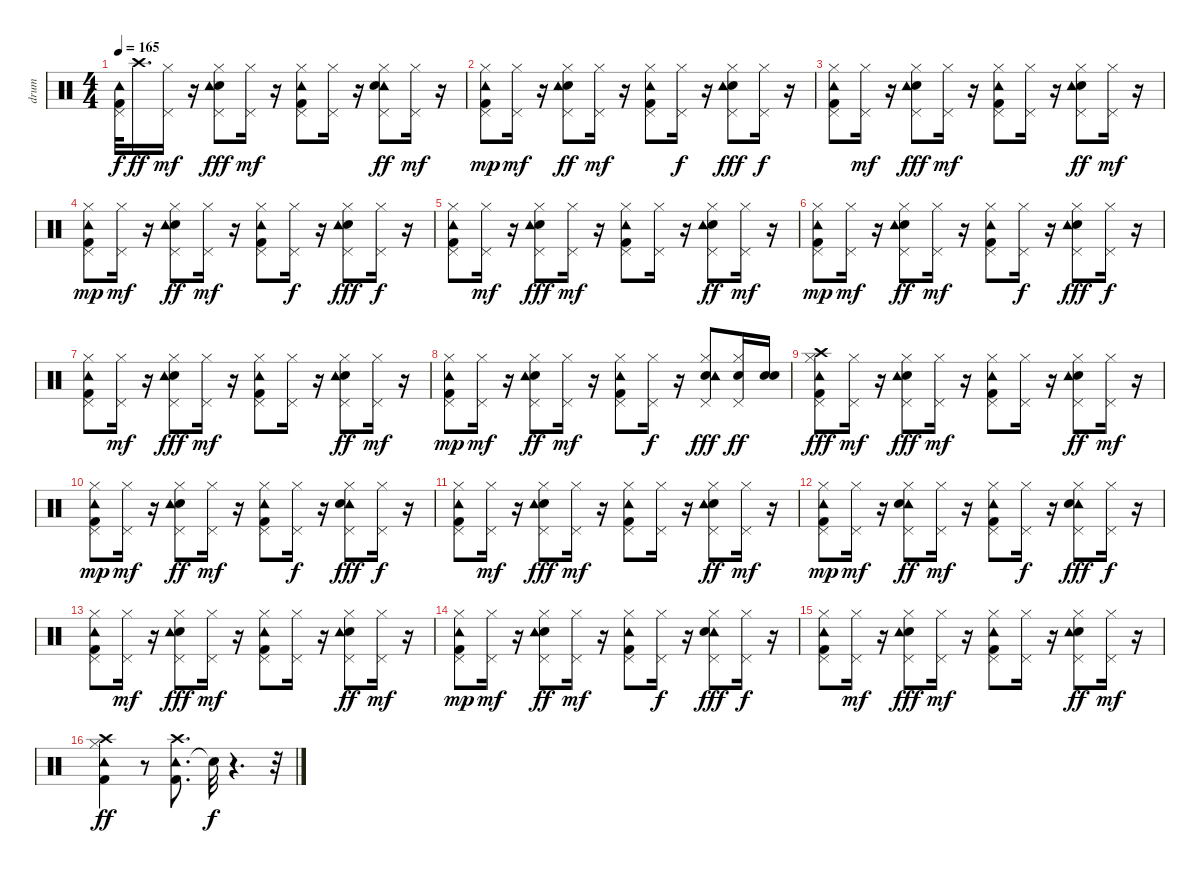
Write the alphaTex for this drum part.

\track ("drum" "drum") {instrument percussion}
\staff {score}
\articulation defaults
\ts (4 4)
\tempo 165
\clef neutral
\ks c
("Pedal Hi-Hat (hit)" "Kick (hit) 2" "Tambourine (hit)").32{dy f} "Crash high (hit)".16{d dy ff} ("Hi-Hat (closed)" "Pedal Hi-Hat (hit)").16{dy mf} r.16 ("Hi-Hat (closed)" "Pedal Hi-Hat (hit)" "Electric Snare (hit)" "Tambourine (hit)").8{dy fff} ("Hi-Hat (closed)" "Pedal Hi-Hat (hit)").16{dy mf} r.16 ("Hi-Hat (closed)" "Pedal Hi-Hat (hit)" "Kick (hit) 2" "Tambourine (hit)").8 ("Hi-Hat (closed)" "Pedal Hi-Hat (hit)").16 r.16 ("Hi-Hat (closed)" "Tambourine (hit)" "Pedal Hi-Hat (hit)" "Electric Snare (hit)").8{dy ff} ("Hi-Hat (closed)" "Pedal Hi-Hat (hit)").16{dy mf} r.16 |
("Hi-Hat (closed)" "Tambourine (hit)" "Pedal Hi-Hat (hit)" "Kick (hit) 2").8{dy mp} ("Hi-Hat (closed)" "Pedal Hi-Hat (hit)").16{dy mf} r.16 ("Hi-Hat (closed)" "Pedal Hi-Hat (hit)" "Electric Snare (hit)" "Tambourine (hit)").8{dy ff} ("Hi-Hat (closed)" "Pedal Hi-Hat (hit)").16{dy mf} r.16 ("Hi-Hat (closed)" "Pedal Hi-Hat (hit)" "Kick (hit) 2" "Tambourine (hit)").8 ("Hi-Hat (closed)" "Pedal Hi-Hat (hit)").16{dy f} r.16 ("Hi-Hat (closed)" "Pedal Hi-Hat (hit)" "Electric Snare (hit)" "Tambourine (hit)").8{dy fff} ("Hi-Hat (closed)" "Pedal Hi-Hat (hit)").16{dy f} r.16 |
("Hi-Hat (closed)" "Pedal Hi-Hat (hit)" "Kick (hit) 2" "Tambourine (hit)").8 ("Hi-Hat (closed)" "Pedal Hi-Hat (hit)").16{dy mf} r.16 ("Hi-Hat (closed)" "Pedal Hi-Hat (hit)" "Electric Snare (hit)" "Tambourine (hit)").8{dy fff} ("Hi-Hat (closed)" "Pedal Hi-Hat (hit)").16{dy mf} r.16 ("Hi-Hat (closed)" "Pedal Hi-Hat (hit)" "Kick (hit) 2" "Tambourine (hit)").8 ("Hi-Hat (closed)" "Pedal Hi-Hat (hit)").16 r.16 ("Hi-Hat (closed)" "Pedal Hi-Hat (hit)" "Electric Snare (hit)" "Tambourine (hit)").8{dy ff} ("Hi-Hat (closed)" "Pedal Hi-Hat (hit)").16{dy mf} r.16 |
("Hi-Hat (closed)" "Pedal Hi-Hat (hit)" "Kick (hit) 2" "Tambourine (hit)").8{dy mp} ("Hi-Hat (closed)" "Pedal Hi-Hat (hit)").16{dy mf} r.16 ("Hi-Hat (closed)" "Pedal Hi-Hat (hit)" "Electric Snare (hit)" "Tambourine (hit)").8{dy ff} ("Hi-Hat (closed)" "Pedal Hi-Hat (hit)").16{dy mf} r.16 ("Hi-Hat (closed)" "Pedal Hi-Hat (hit)" "Kick (hit) 2" "Tambourine (hit)").8 ("Hi-Hat (closed)" "Pedal Hi-Hat (hit)").16{dy f} r.16 ("Hi-Hat (closed)" "Pedal Hi-Hat (hit)" "Electric Snare (hit)" "Tambourine (hit)").8{dy fff} ("Hi-Hat (closed)" "Pedal Hi-Hat (hit)").16{dy f} r.16 |
("Hi-Hat (closed)" "Pedal Hi-Hat (hit)" "Kick (hit) 2" "Tambourine (hit)").8 ("Hi-Hat (closed)" "Pedal Hi-Hat (hit)").16{dy mf} r.16 ("Hi-Hat (closed)" "Pedal Hi-Hat (hit)" "Electric Snare (hit)" "Tambourine (hit)").8{dy fff} ("Hi-Hat (closed)" "Pedal Hi-Hat (hit)").16{dy mf} r.16 ("Hi-Hat (closed)" "Pedal Hi-Hat (hit)" "Kick (hit) 2" "Tambourine (hit)").8 ("Hi-Hat (closed)" "Pedal Hi-Hat (hit)").16 r.16 ("Hi-Hat (closed)" "Pedal Hi-Hat (hit)" "Electric Snare (hit)" "Tambourine (hit)").8{dy ff} ("Hi-Hat (closed)" "Pedal Hi-Hat (hit)").16{dy mf} r.16 |
("Hi-Hat (closed)" "Pedal Hi-Hat (hit)" "Kick (hit) 2" "Tambourine (hit)").8{dy mp} ("Hi-Hat (closed)" "Pedal Hi-Hat (hit)").16{dy mf} r.16 ("Hi-Hat (closed)" "Pedal Hi-Hat (hit)" "Electric Snare (hit)" "Tambourine (hit)").8{dy ff} ("Hi-Hat (closed)" "Pedal Hi-Hat (hit)").16{dy mf} r.16 ("Hi-Hat (closed)" "Pedal Hi-Hat (hit)" "Kick (hit) 2" "Tambourine (hit)").8 ("Hi-Hat (closed)" "Pedal Hi-Hat (hit)").16{dy f} r.16 ("Hi-Hat (closed)" "Pedal Hi-Hat (hit)" "Electric Snare (hit)" "Tambourine (hit)").8{dy fff} ("Hi-Hat (closed)" "Pedal Hi-Hat (hit)").16{dy f} r.16 |
("Hi-Hat (closed)" "Pedal Hi-Hat (hit)" "Kick (hit) 2" "Tambourine (hit)").8 ("Hi-Hat (closed)" "Pedal Hi-Hat (hit)").16{dy mf} r.16 ("Hi-Hat (closed)" "Pedal Hi-Hat (hit)" "Electric Snare (hit)" "Tambourine (hit)").8{dy fff} ("Hi-Hat (closed)" "Pedal Hi-Hat (hit)").16{dy mf} r.16 ("Hi-Hat (closed)" "Pedal Hi-Hat (hit)" "Kick (hit) 2" "Tambourine (hit)").8 ("Hi-Hat (closed)" "Pedal Hi-Hat (hit)").16 r.16 ("Hi-Hat (closed)" "Pedal Hi-Hat (hit)" "Electric Snare (hit)" "Tambourine (hit)").8{dy ff} ("Hi-Hat (closed)" "Pedal Hi-Hat (hit)").16{dy mf} r.16 |
("Hi-Hat (closed)" "Pedal Hi-Hat (hit)" "Kick (hit) 2" "Tambourine (hit)").8{dy mp} ("Hi-Hat (closed)" "Pedal Hi-Hat (hit)").16{dy mf} r.16 ("Hi-Hat (closed)" "Pedal Hi-Hat (hit)" "Electric Snare (hit)" "Tambourine (hit)").8{dy ff} ("Hi-Hat (closed)" "Pedal Hi-Hat (hit)").16{dy mf} r.16 ("Hi-Hat (closed)" "Pedal Hi-Hat (hit)" "Kick (hit) 2" "Tambourine (hit)").8 ("Hi-Hat (closed)" "Pedal Hi-Hat (hit)").16{dy f} r.16 ("Hi-Hat (closed)" "Pedal Hi-Hat (hit)" "Electric Snare (hit)" "Tambourine (hit)").8{dy fff} ("Electric Snare (hit)" "Hi-Hat (closed)" "Pedal Hi-Hat (hit)").16{dy ff} ("Electric Snare (hit)" "Electric Snare (hit)").16 |
("Crash high (hit)" "Hi-Hat (closed)" "Pedal Hi-Hat (hit)" "Kick (hit) 2" "Tambourine (hit)").8{dy fff} ("Hi-Hat (closed)" "Pedal Hi-Hat (hit)").16{dy mf} r.16 ("Hi-Hat (closed)" "Pedal Hi-Hat (hit)" "Electric Snare (hit)" "Tambourine (hit)").8{dy fff} ("Hi-Hat (closed)" "Pedal Hi-Hat (hit)").16{dy mf} r.16 ("Hi-Hat (closed)" "Pedal Hi-Hat (hit)" "Kick (hit) 2" "Tambourine (hit)").8 ("Hi-Hat (closed)" "Pedal Hi-Hat (hit)").16 r.16 ("Hi-Hat (closed)" "Pedal Hi-Hat (hit)" "Electric Snare (hit)" "Tambourine (hit)").8{dy ff} ("Hi-Hat (closed)" "Pedal Hi-Hat (hit)").16{dy mf} r.16 |
("Hi-Hat (closed)" "Pedal Hi-Hat (hit)" "Kick (hit) 2" "Tambourine (hit)").8{dy mp} ("Hi-Hat (closed)" "Pedal Hi-Hat (hit)").16{dy mf} r.16 ("Hi-Hat (closed)" "Pedal Hi-Hat (hit)" "Electric Snare (hit)" "Tambourine (hit)").8{dy ff} ("Hi-Hat (closed)" "Pedal Hi-Hat (hit)").16{dy mf} r.16 ("Hi-Hat (closed)" "Tambourine (hit)" "Pedal Hi-Hat (hit)" "Kick (hit) 2").8 ("Hi-Hat (closed)" "Pedal Hi-Hat (hit)").16{dy f} r.16 ("Hi-Hat (closed)" "Tambourine (hit)" "Pedal Hi-Hat (hit)" "Electric Snare (hit)").8{dy fff} ("Hi-Hat (closed)" "Pedal Hi-Hat (hit)").16{dy f} r.16 |
("Hi-Hat (closed)" "Pedal Hi-Hat (hit)" "Kick (hit) 2" "Tambourine (hit)").8 ("Hi-Hat (closed)" "Pedal Hi-Hat (hit)").16{dy mf} r.16 ("Hi-Hat (closed)" "Pedal Hi-Hat (hit)" "Electric Snare (hit)" "Tambourine (hit)").8{dy fff} ("Hi-Hat (closed)" "Pedal Hi-Hat (hit)").16{dy mf} r.16 ("Hi-Hat (closed)" "Pedal Hi-Hat (hit)" "Kick (hit) 2" "Tambourine (hit)").8 ("Hi-Hat (closed)" "Pedal Hi-Hat (hit)").16 r.16 ("Hi-Hat (closed)" "Pedal Hi-Hat (hit)" "Electric Snare (hit)" "Tambourine (hit)").8{dy ff} ("Hi-Hat (closed)" "Pedal Hi-Hat (hit)").16{dy mf} r.16 |
("Hi-Hat (closed)" "Pedal Hi-Hat (hit)" "Kick (hit) 2" "Tambourine (hit)").8{dy mp} ("Hi-Hat (closed)" "Pedal Hi-Hat (hit)").16{dy mf} r.16 ("Hi-Hat (closed)" "Tambourine (hit)" "Pedal Hi-Hat (hit)" "Electric Snare (hit)").8{dy ff} ("Hi-Hat (closed)" "Pedal Hi-Hat (hit)").16{dy mf} r.16 ("Hi-Hat (closed)" "Pedal Hi-Hat (hit)" "Kick (hit) 2" "Tambourine (hit)").8 ("Hi-Hat (closed)" "Pedal Hi-Hat (hit)").16{dy f} r.16 ("Hi-Hat (closed)" "Tambourine (hit)" "Pedal Hi-Hat (hit)" "Electric Snare (hit)").8{dy fff} ("Hi-Hat (closed)" "Pedal Hi-Hat (hit)").16{dy f} r.16 |
("Hi-Hat (closed)" "Pedal Hi-Hat (hit)" "Kick (hit) 2" "Tambourine (hit)").8 ("Hi-Hat (closed)" "Pedal Hi-Hat (hit)").16{dy mf} r.16 ("Hi-Hat (closed)" "Pedal Hi-Hat (hit)" "Electric Snare (hit)" "Tambourine (hit)").8{dy fff} ("Hi-Hat (closed)" "Pedal Hi-Hat (hit)").16{dy mf} r.16 ("Hi-Hat (closed)" "Pedal Hi-Hat (hit)" "Kick (hit) 2" "Tambourine (hit)").8 ("Hi-Hat (closed)" "Pedal Hi-Hat (hit)").16 r.16 ("Hi-Hat (closed)" "Pedal Hi-Hat (hit)" "Electric Snare (hit)" "Tambourine (hit)").8{dy ff} ("Hi-Hat (closed)" "Pedal Hi-Hat (hit)").16{dy mf} r.16 |
("Hi-Hat (closed)" "Pedal Hi-Hat (hit)" "Kick (hit) 2" "Tambourine (hit)").8{dy mp} ("Hi-Hat (closed)" "Pedal Hi-Hat (hit)").16{dy mf} r.16 ("Hi-Hat (closed)" "Pedal Hi-Hat (hit)" "Electric Snare (hit)" "Tambourine (hit)").8{dy ff} ("Hi-Hat (closed)" "Pedal Hi-Hat (hit)").16{dy mf} r.16 ("Hi-Hat (closed)" "Pedal Hi-Hat (hit)" "Kick (hit) 2" "Tambourine (hit)").8 ("Hi-Hat (closed)" "Pedal Hi-Hat (hit)").16{dy f} r.16 ("Hi-Hat (closed)" "Tambourine (hit)" "Pedal Hi-Hat (hit)" "Electric Snare (hit)").8{dy fff} ("Hi-Hat (closed)" "Pedal Hi-Hat (hit)").16{dy f} r.16 |
("Hi-Hat (closed)" "Pedal Hi-Hat (hit)" "Kick (hit) 2" "Tambourine (hit)").8 ("Hi-Hat (closed)" "Pedal Hi-Hat (hit)").16{dy mf} r.16 ("Hi-Hat (closed)" "Pedal Hi-Hat (hit)" "Electric Snare (hit)" "Tambourine (hit)").8{dy fff} ("Hi-Hat (closed)" "Pedal Hi-Hat (hit)").16{dy mf} r.16 ("Hi-Hat (closed)" "Pedal Hi-Hat (hit)" "Kick (hit) 2" "Tambourine (hit)").8 ("Hi-Hat (closed)" "Pedal Hi-Hat (hit)").16 r.16 ("Hi-Hat (closed)" "Pedal Hi-Hat (hit)" "Electric Snare (hit)" "Tambourine (hit)").8{dy ff} ("Hi-Hat (closed)" "Pedal Hi-Hat (hit)").16{dy mf} r.16 |
("Hi-Hat (closed)" "Kick (hit) 2" "Crash high (hit)" "Tambourine (hit)").4{dy ff} r.8 ("Tambourine (hit)" "Kick (hit) 2" "Crash high (hit)").8{d} "Snare (hit)"{t}.32{dy f} r.4{d} r.32
